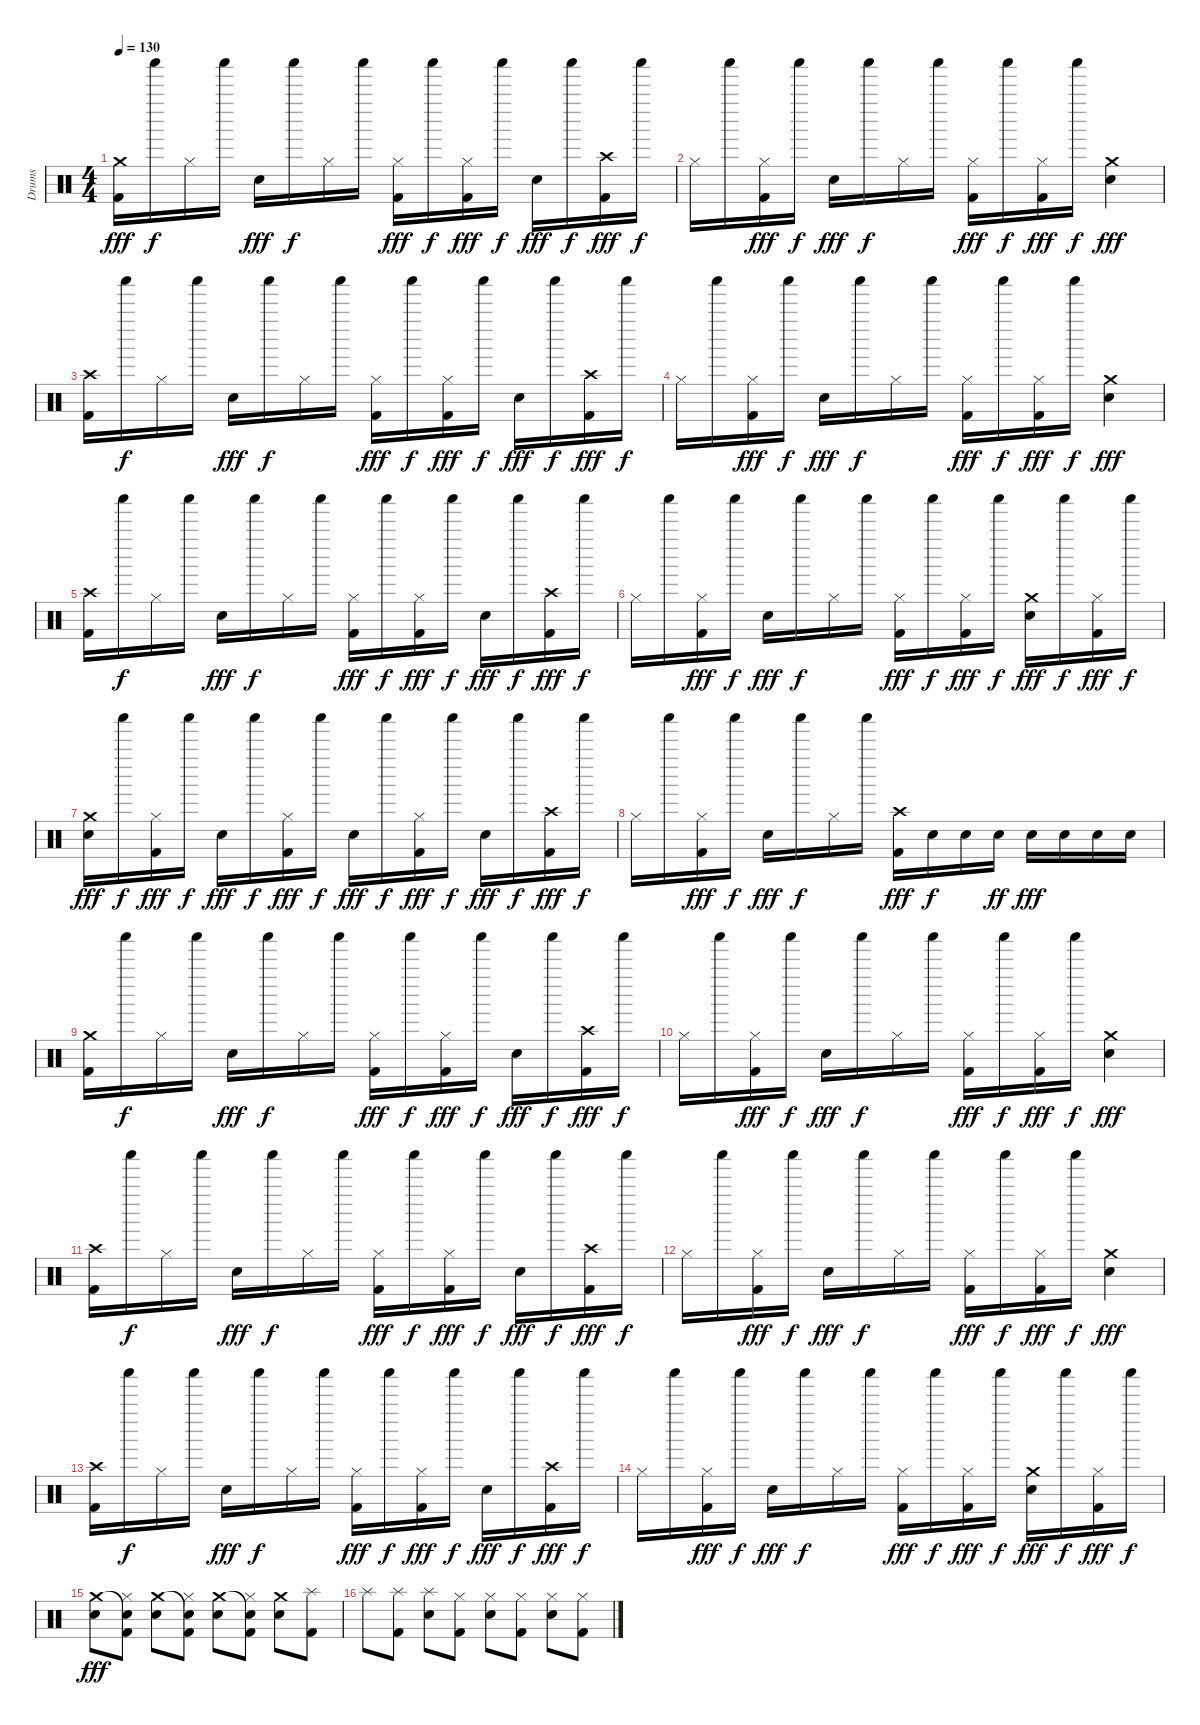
\track ("Drums" "Drums") {instrument percussion}
\staff {score}
\articulation defaults
\ts (4 4)
\tempo 130
\clef neutral
\ks c
("Crash medium (hit)" "Kick (hit) 2").16{dy fff} "Shaker (hit)".16{dy f} "Hi-Hat (closed)".16 "Shaker (hit)".16 "Snare (hit) 2".16{dy fff} "Shaker (hit)".16{dy f} "Hi-Hat (closed)".16 "Shaker (hit)".16 ("Hi-Hat (closed)" "Kick (hit) 2").16{dy fff} "Shaker (hit)".16{dy f} ("Hi-Hat (closed)" "Kick (hit) 2").16{dy fff} "Shaker (hit)".16{dy f} "Snare (hit) 2".16{dy fff} "Shaker (hit)".16{dy f} ("Crash high (hit)" "Kick (hit) 2").16{dy fff} "Shaker (hit)".16{dy f} |
"Hi-Hat (closed)".16 "Shaker (hit)".16 ("Hi-Hat (closed)" "Kick (hit) 2").16{dy fff} "Shaker (hit)".16{dy f} "Snare (hit) 2".16{dy fff} "Shaker (hit)".16{dy f} "Hi-Hat (closed)".16 "Shaker (hit)".16 ("Hi-Hat (closed)" "Kick (hit) 2").16{dy fff} "Shaker (hit)".16{dy f} ("Hi-Hat (closed)" "Kick (hit) 2").16{dy fff} "Shaker (hit)".16{dy f} ("Crash medium (hit)" "Snare (hit) 2").4{dy fff} |
("Crash high (hit)" "Kick (hit) 2").16 "Shaker (hit)".16{dy f} "Hi-Hat (closed)".16 "Shaker (hit)".16 "Snare (hit) 2".16{dy fff} "Shaker (hit)".16{dy f} "Hi-Hat (closed)".16 "Shaker (hit)".16 ("Hi-Hat (closed)" "Kick (hit) 2").16{dy fff} "Shaker (hit)".16{dy f} ("Hi-Hat (closed)" "Kick (hit) 2").16{dy fff} "Shaker (hit)".16{dy f} "Snare (hit) 2".16{dy fff} "Shaker (hit)".16{dy f} ("Crash high (hit)" "Kick (hit) 2").16{dy fff} "Shaker (hit)".16{dy f} |
"Hi-Hat (closed)".16 "Shaker (hit)".16 ("Hi-Hat (closed)" "Kick (hit) 2").16{dy fff} "Shaker (hit)".16{dy f} "Snare (hit) 2".16{dy fff} "Shaker (hit)".16{dy f} "Hi-Hat (closed)".16 "Shaker (hit)".16 ("Hi-Hat (closed)" "Kick (hit) 2").16{dy fff} "Shaker (hit)".16{dy f} ("Hi-Hat (closed)" "Kick (hit) 2").16{dy fff} "Shaker (hit)".16{dy f} ("Crash medium (hit)" "Snare (hit) 2").4{dy fff} |
("Crash high (hit)" "Kick (hit) 2").16 "Shaker (hit)".16{dy f} "Hi-Hat (closed)".16 "Shaker (hit)".16 "Snare (hit) 2".16{dy fff} "Shaker (hit)".16{dy f} "Hi-Hat (closed)".16 "Shaker (hit)".16 ("Hi-Hat (closed)" "Kick (hit) 2").16{dy fff} "Shaker (hit)".16{dy f} ("Hi-Hat (closed)" "Kick (hit) 2").16{dy fff} "Shaker (hit)".16{dy f} "Snare (hit) 2".16{dy fff} "Shaker (hit)".16{dy f} ("Crash high (hit)" "Kick (hit) 2").16{dy fff} "Shaker (hit)".16{dy f} |
"Hi-Hat (closed)".16 "Shaker (hit)".16 ("Hi-Hat (closed)" "Kick (hit) 2").16{dy fff} "Shaker (hit)".16{dy f} "Snare (hit) 2".16{dy fff} "Shaker (hit)".16{dy f} "Hi-Hat (closed)".16 "Shaker (hit)".16 ("Hi-Hat (closed)" "Kick (hit) 2").16{dy fff} "Shaker (hit)".16{dy f} ("Hi-Hat (closed)" "Kick (hit) 2").16{dy fff} "Shaker (hit)".16{dy f} ("Crash medium (hit)" "Snare (hit) 2").16{dy fff} "Shaker (hit)".16{dy f} ("Hi-Hat (closed)" "Kick (hit) 2").16{dy fff} "Shaker (hit)".16{dy f} |
("Crash medium (hit)" "Snare (hit) 2").16{dy fff} "Shaker (hit)".16{dy f} ("Hi-Hat (closed)" "Kick (hit) 2").16{dy fff} "Shaker (hit)".16{dy f} "Snare (hit) 2".16{dy fff} "Shaker (hit)".16{dy f} ("Hi-Hat (closed)" "Kick (hit) 2").16{dy fff} "Shaker (hit)".16{dy f} "Snare (hit) 2".16{dy fff} "Shaker (hit)".16{dy f} ("Hi-Hat (closed)" "Kick (hit) 2").16{dy fff} "Shaker (hit)".16{dy f} "Snare (hit) 2".16{dy fff} "Shaker (hit)".16{dy f} ("Crash high (hit)" "Kick (hit) 2").16{dy fff} "Shaker (hit)".16{dy f} |
"Hi-Hat (closed)".16 "Shaker (hit)".16 ("Hi-Hat (closed)" "Kick (hit) 2").16{dy fff} "Shaker (hit)".16{dy f} "Snare (hit) 2".16{dy fff} "Shaker (hit)".16{dy f} "Hi-Hat (closed)".16 "Shaker (hit)".16 ("Crash high (hit)" "Kick (hit) 2").16{dy fff} "Snare (hit) 2".16{dy f} "Snare (hit) 2".16 "Snare (hit) 2".16{dy ff} "Snare (hit) 2".16{dy fff} "Snare (hit) 2".16 "Snare (hit) 2".16 "Snare (hit) 2".16 |
("Crash medium (hit)" "Kick (hit) 2").16 "Shaker (hit)".16{dy f} "Hi-Hat (closed)".16 "Shaker (hit)".16 "Snare (hit) 2".16{dy fff} "Shaker (hit)".16{dy f} "Hi-Hat (closed)".16 "Shaker (hit)".16 ("Hi-Hat (closed)" "Kick (hit) 2").16{dy fff} "Shaker (hit)".16{dy f} ("Hi-Hat (closed)" "Kick (hit) 2").16{dy fff} "Shaker (hit)".16{dy f} "Snare (hit) 2".16{dy fff} "Shaker (hit)".16{dy f} ("Crash high (hit)" "Kick (hit) 2").16{dy fff} "Shaker (hit)".16{dy f} |
"Hi-Hat (closed)".16 "Shaker (hit)".16 ("Hi-Hat (closed)" "Kick (hit) 2").16{dy fff} "Shaker (hit)".16{dy f} "Snare (hit) 2".16{dy fff} "Shaker (hit)".16{dy f} "Hi-Hat (closed)".16 "Shaker (hit)".16 ("Hi-Hat (closed)" "Kick (hit) 2").16{dy fff} "Shaker (hit)".16{dy f} ("Hi-Hat (closed)" "Kick (hit) 2").16{dy fff} "Shaker (hit)".16{dy f} ("Crash medium (hit)" "Snare (hit) 2").4{dy fff} |
("Crash high (hit)" "Kick (hit) 2").16 "Shaker (hit)".16{dy f} "Hi-Hat (closed)".16 "Shaker (hit)".16 "Snare (hit) 2".16{dy fff} "Shaker (hit)".16{dy f} "Hi-Hat (closed)".16 "Shaker (hit)".16 ("Hi-Hat (closed)" "Kick (hit) 2").16{dy fff} "Shaker (hit)".16{dy f} ("Hi-Hat (closed)" "Kick (hit) 2").16{dy fff} "Shaker (hit)".16{dy f} "Snare (hit) 2".16{dy fff} "Shaker (hit)".16{dy f} ("Crash high (hit)" "Kick (hit) 2").16{dy fff} "Shaker (hit)".16{dy f} |
"Hi-Hat (closed)".16 "Shaker (hit)".16 ("Hi-Hat (closed)" "Kick (hit) 2").16{dy fff} "Shaker (hit)".16{dy f} "Snare (hit) 2".16{dy fff} "Shaker (hit)".16{dy f} "Hi-Hat (closed)".16 "Shaker (hit)".16 ("Hi-Hat (closed)" "Kick (hit) 2").16{dy fff} "Shaker (hit)".16{dy f} ("Hi-Hat (closed)" "Kick (hit) 2").16{dy fff} "Shaker (hit)".16{dy f} ("Crash medium (hit)" "Snare (hit) 2").4{dy fff} |
("Crash high (hit)" "Kick (hit) 2").16 "Shaker (hit)".16{dy f} "Hi-Hat (closed)".16 "Shaker (hit)".16 "Snare (hit) 2".16{dy fff} "Shaker (hit)".16{dy f} "Hi-Hat (closed)".16 "Shaker (hit)".16 ("Hi-Hat (closed)" "Kick (hit) 2").16{dy fff} "Shaker (hit)".16{dy f} ("Hi-Hat (closed)" "Kick (hit) 2").16{dy fff} "Shaker (hit)".16{dy f} "Snare (hit) 2".16{dy fff} "Shaker (hit)".16{dy f} ("Crash high (hit)" "Kick (hit) 2").16{dy fff} "Shaker (hit)".16{dy f} |
"Hi-Hat (closed)".16 "Shaker (hit)".16 ("Hi-Hat (closed)" "Kick (hit) 2").16{dy fff} "Shaker (hit)".16{dy f} "Snare (hit) 2".16{dy fff} "Shaker (hit)".16{dy f} "Hi-Hat (closed)".16 "Shaker (hit)".16 ("Hi-Hat (closed)" "Kick (hit) 2").16{dy fff} "Shaker (hit)".16{dy f} ("Hi-Hat (closed)" "Kick (hit) 2").16{dy fff} "Shaker (hit)".16{dy f} ("Crash medium (hit)" "Snare (hit) 2").16{dy fff} "Shaker (hit)".16{dy f} ("Hi-Hat (closed)" "Kick (hit) 2").16{dy fff} "Shaker (hit)".16{dy f} |
("Crash medium (hit)" "Snare (hit) 2").8{dy fff} ("Snare (hit)"{t} "Hi-Hat (closed)" "Kick (hit) 2").8 ("Crash medium (hit)" "Snare (hit) 2").8 ("Snare (hit)"{t} "Hi-Hat (closed)" "Kick (hit) 2").8 ("Crash medium (hit)" "Snare (hit) 2").8 ("Snare (hit)"{t} "Hi-Hat (closed)" "Kick (hit) 2").8 ("Crash medium (hit)" "Snare (hit) 2").8 ("Splash (hit)" "Kick (hit) 2").8 |
"Splash (hit)".8 ("Splash (hit)" "Kick (hit) 2").8 ("Splash (hit)" "Snare (hit) 2").8 ("Hi-Hat (closed)" "Kick (hit) 2").8 ("Hi-Hat (closed)" "Snare (hit) 2").8 ("Hi-Hat (closed)" "Kick (hit) 2").8 ("Hi-Hat (closed)" "Snare (hit) 2").8 ("Hi-Hat (closed)" "Kick (hit) 2").8
